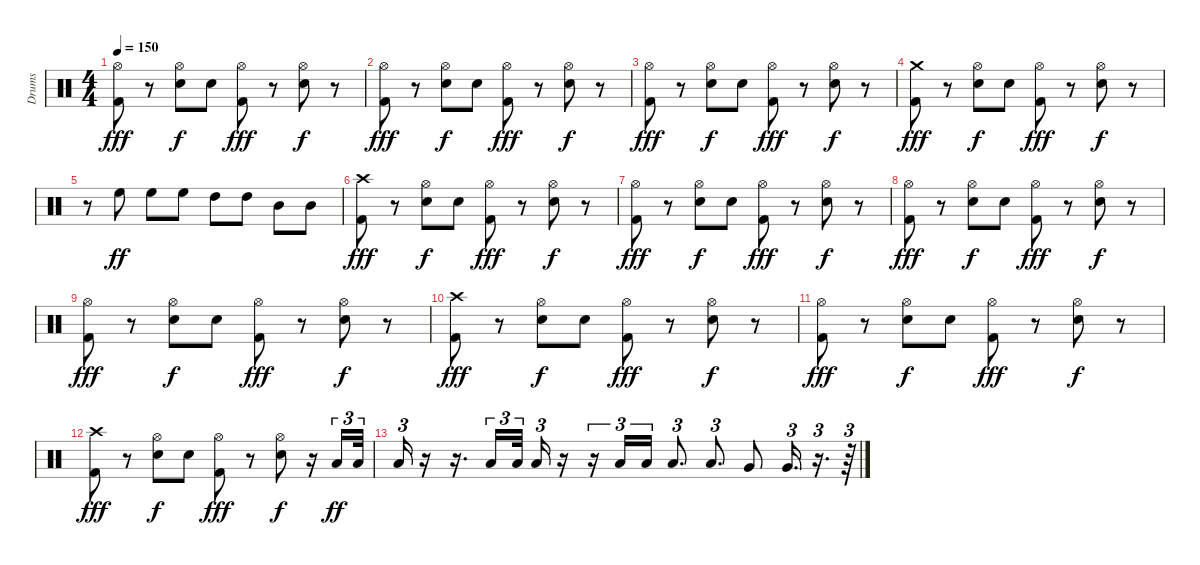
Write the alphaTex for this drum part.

\track ("Drums" "Drums") {instrument percussion}
\staff {score}
\articulation defaults
\ts (4 4)
\tempo 150
\clef neutral
\ks c
("Hi-Hat (open)" "Kick (hit) 2").8{dy fff} r.8 ("Hi-Hat (open)" "Snare (hit) 2").8{dy f} "Snare (hit) 2".8 ("Hi-Hat (open)" "Kick (hit) 2").8{dy fff} r.8 ("Hi-Hat (open)" "Snare (hit) 2").8{dy f} r.8 |
("Hi-Hat (open)" "Kick (hit) 2").8{dy fff} r.8 ("Hi-Hat (open)" "Snare (hit) 2").8{dy f} "Snare (hit) 2".8 ("Hi-Hat (open)" "Kick (hit) 2").8{dy fff} r.8 ("Hi-Hat (open)" "Snare (hit) 2").8{dy f} r.8 |
("Hi-Hat (open)" "Kick (hit) 2").8{dy fff} r.8 ("Hi-Hat (open)" "Snare (hit) 2").8{dy f} "Snare (hit) 2".8 ("Hi-Hat (open)" "Kick (hit) 2").8{dy fff} r.8 ("Hi-Hat (open)" "Snare (hit) 2").8{dy f} r.8 |
("Crash medium (hit)" "Kick (hit) 2").8{dy fff} r.8 ("Hi-Hat (open)" "Snare (hit) 2").8{dy f} "Snare (hit) 2".8 ("Hi-Hat (open)" "Kick (hit) 2").8{dy fff} r.8 ("Hi-Hat (open)" "Snare (hit) 2").8{dy f} r.8 |
r.8 "High Floor Tom (hit)".8{dy ff} "High Floor Tom (hit)".8 "High Floor Tom (hit)".8 "High Tom (hit)".8 "High Tom (hit)".8 "Mid Tom (hit)".8 "Mid Tom (hit)".8 |
("Crash high (hit)" "Kick (hit) 2").8{dy fff} r.8 ("Hi-Hat (open)" "Snare (hit) 2").8{dy f} "Snare (hit) 2".8 ("Hi-Hat (open)" "Kick (hit) 2").8{dy fff} r.8 ("Hi-Hat (open)" "Snare (hit) 2").8{dy f} r.8 |
("Hi-Hat (open)" "Kick (hit) 2").8{dy fff} r.8 ("Hi-Hat (open)" "Snare (hit) 2").8{dy f} "Snare (hit) 2".8 ("Hi-Hat (open)" "Kick (hit) 2").8{dy fff} r.8 ("Hi-Hat (open)" "Snare (hit) 2").8{dy f} r.8 |
("Hi-Hat (open)" "Kick (hit) 2").8{dy fff} r.8 ("Hi-Hat (open)" "Snare (hit) 2").8{dy f} "Snare (hit) 2".8 ("Hi-Hat (open)" "Kick (hit) 2").8{dy fff} r.8 ("Hi-Hat (open)" "Snare (hit) 2").8{dy f} r.8 |
("Hi-Hat (open)" "Kick (hit) 2").8{dy fff} r.8 ("Hi-Hat (open)" "Snare (hit) 2").8{dy f} "Snare (hit) 2".8 ("Hi-Hat (open)" "Kick (hit) 2").8{dy fff} r.8 ("Hi-Hat (open)" "Snare (hit) 2").8{dy f} r.8 |
("Crash high (hit)" "Kick (hit) 2").8{dy fff} r.8 ("Hi-Hat (open)" "Snare (hit) 2").8{dy f} "Snare (hit) 2".8 ("Hi-Hat (open)" "Kick (hit) 2").8{dy fff} r.8 ("Hi-Hat (open)" "Snare (hit) 2").8{dy f} r.8 |
("Hi-Hat (open)" "Kick (hit) 2").8{dy fff volume 5} r.8 ("Hi-Hat (open)" "Snare (hit) 2").8{dy f} "Snare (hit) 2".8 ("Hi-Hat (open)" "Kick (hit) 2").8{dy fff} r.8 ("Hi-Hat (open)" "Snare (hit) 2").8{dy f} r.8 |
("Crash high (hit)" "Kick (hit) 2").8{dy fff} r.8 ("Hi-Hat (open)" "Snare (hit) 2").8{dy f} "Snare (hit) 2".8 ("Hi-Hat (open)" "Kick (hit) 2").8{dy fff} r.8 ("Hi-Hat (open)" "Snare (hit) 2").8{dy f} r.16 "Low Tom (hit)".16{tu (3 2) dy ff} "Low Tom (hit)".32{tu (3 2)} |
"Low Tom (hit)".16{tu (3 2)} r.16 r.16{d} "Low Tom (hit)".16{tu (3 2)} "Low Tom (hit)".32{tu (3 2)} "Low Tom (hit)".16{tu (3 2)} r.16 r.16{tu (3 2)} "Low Tom (hit)".16{tu (3 2)} "Low Tom (hit)".16{tu (3 2)} "Low Tom (hit)".8{d tu (3 2)} "Low Tom (hit)".8{d tu (3 2)} "Very Low Tom (hit)".8 "Very Low Tom (hit)".16{d tu (3 2)} r.16{d tu (3 2)} r.64{tu (3 2)}
